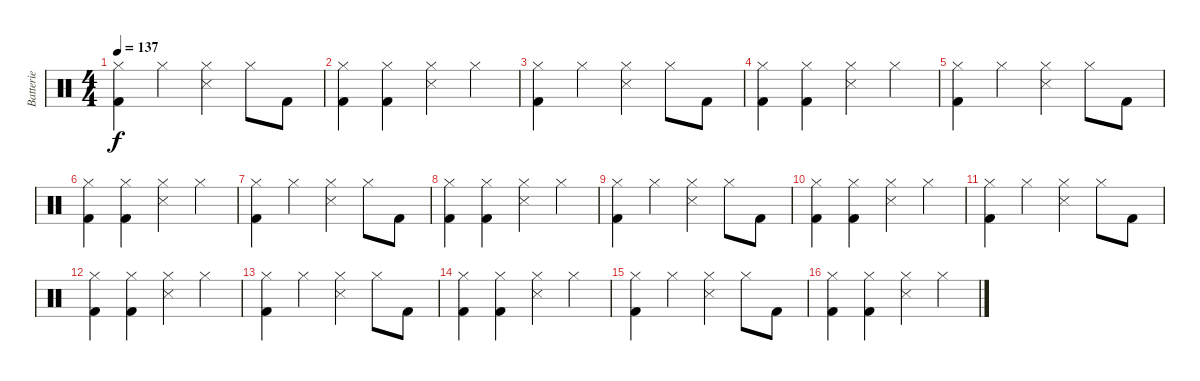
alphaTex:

\track ("Batterie" "Batterie") {instrument percussion}
\staff {score}
\articulation defaults
\ts (4 4)
\tempo 137
\clef neutral
\ks c
("Kick (hit) 2" "Hi-Hat (closed)").4{dy f volume 3} "Hi-Hat (closed)".4{volume 15} ("Snare (side stick) 3" "Hi-Hat (closed)").4 "Hi-Hat (closed)".8 "Kick (hit) 2".8 |
("Kick (hit) 2" "Hi-Hat (closed)").4 ("Kick (hit) 2" "Hi-Hat (closed)").4 ("Snare (side stick) 3" "Hi-Hat (closed)").4 "Hi-Hat (closed)".4 |
("Kick (hit) 2" "Hi-Hat (closed)").4 "Hi-Hat (closed)".4 ("Snare (side stick) 3" "Hi-Hat (closed)").4 "Hi-Hat (closed)".8 "Kick (hit) 2".8 |
("Kick (hit) 2" "Hi-Hat (closed)").4 ("Kick (hit) 2" "Hi-Hat (closed)").4 ("Snare (side stick) 3" "Hi-Hat (closed)").4 "Hi-Hat (closed)".4 |
("Kick (hit) 2" "Hi-Hat (closed)").4 "Hi-Hat (closed)".4 ("Snare (side stick) 3" "Hi-Hat (closed)").4 "Hi-Hat (closed)".8 "Kick (hit) 2".8 |
("Kick (hit) 2" "Hi-Hat (closed)").4 ("Kick (hit) 2" "Hi-Hat (closed)").4 ("Snare (side stick) 3" "Hi-Hat (closed)").4 "Hi-Hat (closed)".4 |
("Kick (hit) 2" "Hi-Hat (closed)").4 "Hi-Hat (closed)".4 ("Snare (side stick) 3" "Hi-Hat (closed)").4 "Hi-Hat (closed)".8 "Kick (hit) 2".8 |
("Kick (hit) 2" "Hi-Hat (closed)").4 ("Kick (hit) 2" "Hi-Hat (closed)").4 ("Snare (side stick) 3" "Hi-Hat (closed)").4 "Hi-Hat (closed)".4 |
("Kick (hit) 2" "Hi-Hat (closed)").4 "Hi-Hat (closed)".4 ("Snare (side stick) 3" "Hi-Hat (closed)").4 "Hi-Hat (closed)".8 "Kick (hit) 2".8 |
("Kick (hit) 2" "Hi-Hat (closed)").4 ("Kick (hit) 2" "Hi-Hat (closed)").4 ("Snare (side stick) 3" "Hi-Hat (closed)").4 "Hi-Hat (closed)".4 |
("Kick (hit) 2" "Hi-Hat (closed)").4 "Hi-Hat (closed)".4 ("Snare (side stick) 3" "Hi-Hat (closed)").4 "Hi-Hat (closed)".8 "Kick (hit) 2".8 |
("Kick (hit) 2" "Hi-Hat (closed)").4 ("Kick (hit) 2" "Hi-Hat (closed)").4 ("Snare (side stick) 3" "Hi-Hat (closed)").4 "Hi-Hat (closed)".4 |
("Kick (hit) 2" "Hi-Hat (closed)").4 "Hi-Hat (closed)".4 ("Snare (side stick) 3" "Hi-Hat (closed)").4 "Hi-Hat (closed)".8 "Kick (hit) 2".8 |
("Kick (hit) 2" "Hi-Hat (closed)").4 ("Kick (hit) 2" "Hi-Hat (closed)").4 ("Snare (side stick) 3" "Hi-Hat (closed)").4 "Hi-Hat (closed)".4 |
("Kick (hit) 2" "Hi-Hat (closed)").4 "Hi-Hat (closed)".4 ("Snare (side stick) 3" "Hi-Hat (closed)").4 "Hi-Hat (closed)".8 "Kick (hit) 2".8 |
("Kick (hit) 2" "Hi-Hat (closed)").4 ("Kick (hit) 2" "Hi-Hat (closed)").4 ("Snare (side stick) 3" "Hi-Hat (closed)").4 "Hi-Hat (closed)".4
